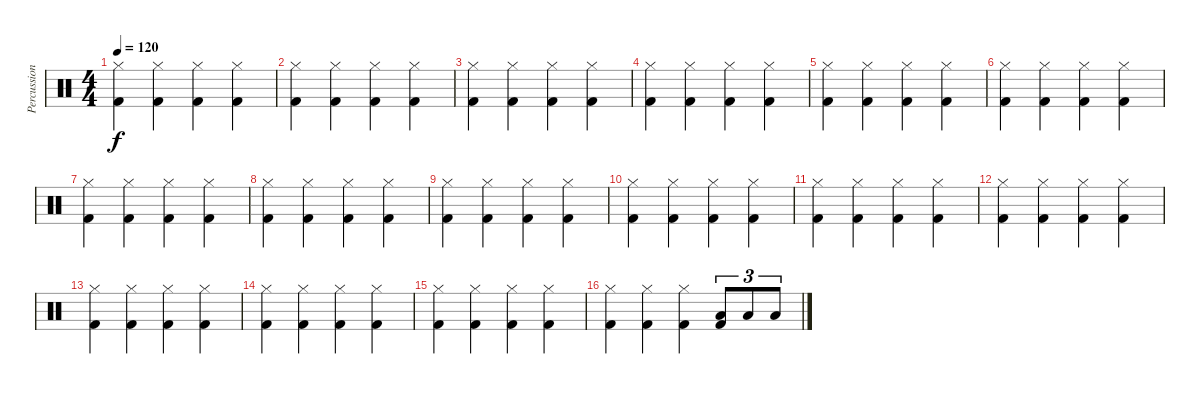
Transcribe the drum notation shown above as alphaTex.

\track ("Percussions" "Percussion") {instrument percussion}
\staff {score}
\articulation defaults
\ts (4 4)
\tempo 120
\clef neutral
\ks c
("Hi-Hat (closed)" "Kick (hit) 2").4{dy f} ("Hi-Hat (closed)" "Kick (hit) 2").4 ("Hi-Hat (closed)" "Kick (hit) 2").4 ("Hi-Hat (closed)" "Kick (hit) 2").4 |
("Hi-Hat (closed)" "Kick (hit) 2").4 ("Hi-Hat (closed)" "Kick (hit) 2").4 ("Hi-Hat (closed)" "Kick (hit) 2").4 ("Hi-Hat (closed)" "Kick (hit) 2").4 |
("Hi-Hat (closed)" "Kick (hit) 2").4 ("Hi-Hat (closed)" "Kick (hit) 2").4 ("Hi-Hat (closed)" "Kick (hit) 2").4 ("Hi-Hat (closed)" "Kick (hit) 2").4 |
("Hi-Hat (closed)" "Kick (hit) 2").4 ("Hi-Hat (closed)" "Kick (hit) 2").4 ("Hi-Hat (closed)" "Kick (hit) 2").4 ("Hi-Hat (closed)" "Kick (hit) 2").4 |
("Hi-Hat (closed)" "Kick (hit) 2").4 ("Hi-Hat (closed)" "Kick (hit) 2").4 ("Hi-Hat (closed)" "Kick (hit) 2").4 ("Hi-Hat (closed)" "Kick (hit) 2").4 |
("Hi-Hat (closed)" "Kick (hit) 2").4 ("Hi-Hat (closed)" "Kick (hit) 2").4 ("Hi-Hat (closed)" "Kick (hit) 2").4 ("Hi-Hat (closed)" "Kick (hit) 2").4 |
("Hi-Hat (closed)" "Kick (hit) 2").4 ("Hi-Hat (closed)" "Kick (hit) 2").4 ("Hi-Hat (closed)" "Kick (hit) 2").4 ("Hi-Hat (closed)" "Kick (hit) 2").4 |
("Hi-Hat (closed)" "Kick (hit) 2").4 ("Hi-Hat (closed)" "Kick (hit) 2").4 ("Hi-Hat (closed)" "Kick (hit) 2").4 ("Hi-Hat (closed)" "Kick (hit) 2").4 |
("Hi-Hat (closed)" "Kick (hit) 2").4 ("Hi-Hat (closed)" "Kick (hit) 2").4 ("Hi-Hat (closed)" "Kick (hit) 2").4 ("Hi-Hat (closed)" "Kick (hit) 2").4 |
("Hi-Hat (closed)" "Kick (hit) 2").4 ("Hi-Hat (closed)" "Kick (hit) 2").4 ("Hi-Hat (closed)" "Kick (hit) 2").4 ("Hi-Hat (closed)" "Kick (hit) 2").4 |
("Hi-Hat (closed)" "Kick (hit) 2").4 ("Hi-Hat (closed)" "Kick (hit) 2").4 ("Hi-Hat (closed)" "Kick (hit) 2").4 ("Hi-Hat (closed)" "Kick (hit) 2").4 |
("Hi-Hat (closed)" "Kick (hit) 2").4 ("Hi-Hat (closed)" "Kick (hit) 2").4 ("Hi-Hat (closed)" "Kick (hit) 2").4 ("Hi-Hat (closed)" "Kick (hit) 2").4 |
("Hi-Hat (closed)" "Kick (hit) 2").4 ("Hi-Hat (closed)" "Kick (hit) 2").4 ("Hi-Hat (closed)" "Kick (hit) 2").4 ("Hi-Hat (closed)" "Kick (hit) 2").4 |
("Hi-Hat (closed)" "Kick (hit) 2").4 ("Hi-Hat (closed)" "Kick (hit) 2").4 ("Hi-Hat (closed)" "Kick (hit) 2").4 ("Hi-Hat (closed)" "Kick (hit) 2").4 |
("Hi-Hat (closed)" "Kick (hit) 2").4 ("Hi-Hat (closed)" "Kick (hit) 2").4 ("Hi-Hat (closed)" "Kick (hit) 2").4 ("Hi-Hat (closed)" "Kick (hit) 2").4 |
("Hi-Hat (closed)" "Kick (hit) 2").4 ("Hi-Hat (closed)" "Kick (hit) 2").4 ("Hi-Hat (closed)" "Kick (hit) 2").4 ("Low Tom (hit)" "Kick (hit) 2").8{tu (3 2)} "Low Tom (hit)".8{tu (3 2)} "Low Tom (hit)".8{tu (3 2)}
